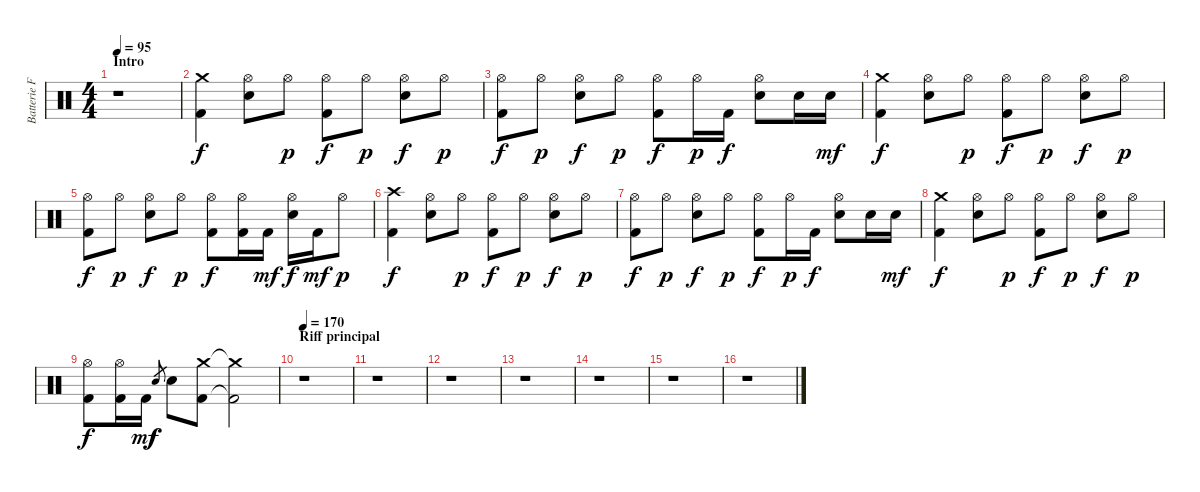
\track ("Batterie Franck" "Batterie F") {instrument percussion}
\staff {score}
\articulation defaults
\ts (4 4)
\section ("" "Intro")
\tempo 95
\clef neutral
\ks c
r.1{dy f} |
("Crash medium (hit)" "Kick (hit) 2").4 ("Hi-Hat (open)" "Snare (hit) 2").8 "Hi-Hat (open)".8{dy p} ("Hi-Hat (open)" "Kick (hit) 2").8{dy f} "Hi-Hat (open)".8{dy p} ("Hi-Hat (open)" "Snare (hit) 2").8{dy f} "Hi-Hat (open)".8{dy p} |
("Hi-Hat (open)" "Kick (hit) 2").8{dy f} "Hi-Hat (open)".8{dy p} ("Hi-Hat (open)" "Snare (hit) 2").8{dy f} "Hi-Hat (open)".8{dy p} ("Hi-Hat (open)" "Kick (hit) 2").8{dy f} "Hi-Hat (open)".16{dy p} "Kick (hit) 2".16{dy f} ("Hi-Hat (open)" "Snare (hit) 2").8 "Snare (hit) 2".16 "Snare (hit) 2".16{dy mf} |
("Crash medium (hit)" "Kick (hit) 2").4{dy f} ("Hi-Hat (open)" "Snare (hit) 2").8 "Hi-Hat (open)".8{dy p} ("Hi-Hat (open)" "Kick (hit) 2").8{dy f} "Hi-Hat (open)".8{dy p} ("Hi-Hat (open)" "Snare (hit) 2").8{dy f} "Hi-Hat (open)".8{dy p} |
("Hi-Hat (open)" "Kick (hit) 2").8{dy f} "Hi-Hat (open)".8{dy p} ("Hi-Hat (open)" "Snare (hit) 2").8{dy f} "Hi-Hat (open)".8{dy p} ("Hi-Hat (open)" "Kick (hit) 2").8{dy f} ("Hi-Hat (open)" "Kick (hit) 2").16 "Kick (hit) 2".16{dy mf} ("Hi-Hat (open)" "Snare (hit) 2").16{dy f} "Kick (hit) 2".16{dy mf} "Hi-Hat (open)".8{dy p} |
("Crash high (hit)" "Kick (hit) 2").4{dy f} ("Hi-Hat (open)" "Snare (hit) 2").8 "Hi-Hat (open)".8{dy p} ("Hi-Hat (open)" "Kick (hit) 2").8{dy f} "Hi-Hat (open)".8{dy p} ("Hi-Hat (open)" "Snare (hit) 2").8{dy f} "Hi-Hat (open)".8{dy p} |
("Hi-Hat (open)" "Kick (hit) 2").8{dy f} "Hi-Hat (open)".8{dy p} ("Hi-Hat (open)" "Snare (hit) 2").8{dy f} "Hi-Hat (open)".8{dy p} ("Hi-Hat (open)" "Kick (hit) 2").8{dy f} "Hi-Hat (open)".16{dy p} "Kick (hit) 2".16{dy f} ("Hi-Hat (open)" "Snare (hit) 2").8 "Snare (hit) 2".16 "Snare (hit) 2".16{dy mf} |
("Crash medium (hit)" "Kick (hit) 2").4{dy f} ("Hi-Hat (open)" "Snare (hit) 2").8 "Hi-Hat (open)".8{dy p} ("Hi-Hat (open)" "Kick (hit) 2").8{dy f} "Hi-Hat (open)".8{dy p} ("Hi-Hat (open)" "Snare (hit) 2").8{dy f} "Hi-Hat (open)".8{dy p} |
("Hi-Hat (open)" "Kick (hit) 2").8{dy f} ("Hi-Hat (open)" "Kick (hit) 2").16 "Kick (hit) 2".16{dy mf} "Snare (hit) 2".8{gr dy f} "Snare (hit) 2".8 ("Crash medium (hit)" "Kick (hit) 2").8 ("Crash medium (hit)"{t} "Kick (hit) 2"{t}).2 |
\section ("" "Riff principal")
\tempo 170
r.1 |
r.1 |
r.1 |
r.1 |
r.1 |
r.1 |
r.1
